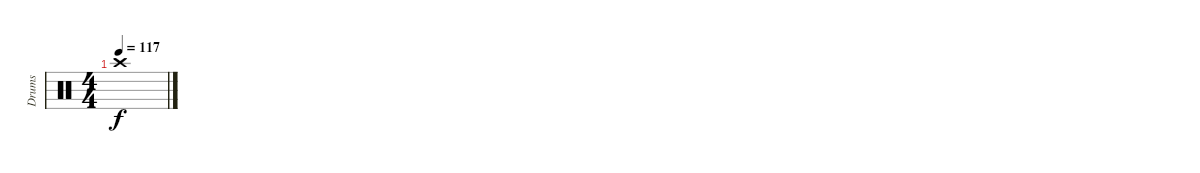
\track ("Drums" "Drums") {instrument percussion}
\staff {score}
\articulation defaults
\ts (4 4)
\tempo 117
\clef neutral
\ks c "Crash high (hit)"{t}.1{dy f}
